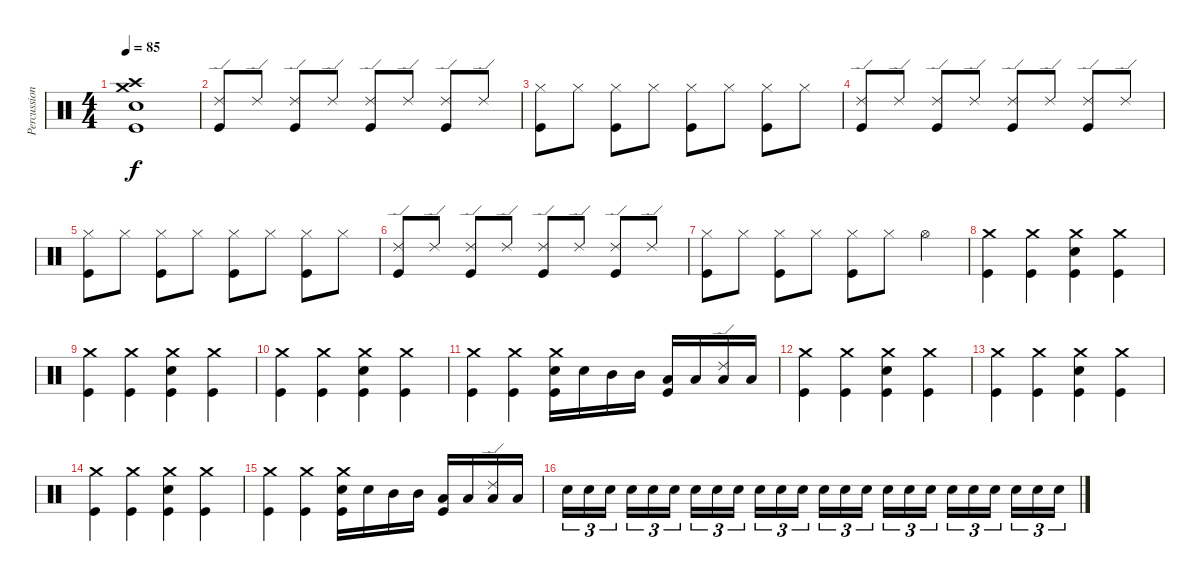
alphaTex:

\track ("Percussion" "Percussion") {instrument percussion}
\staff {score}
\articulation defaults
\ts (4 4)
\tempo 85
\clef neutral
\ks c
("Crash medium (hit)" "Crash high (hit)" "Snare (hit) 2" "Kick (hit)").1{dy f} |
("Ride (edge) 2" "Kick (hit)").8 "Ride (edge) 2".8 ("Ride (edge) 2" "Kick (hit)").8 "Ride (edge) 2".8 ("Ride (edge) 2" "Kick (hit)").8 "Ride (edge) 2".8 ("Ride (edge) 2" "Kick (hit)").8 "Ride (edge) 2".8 |
("Hi-Hat (closed)" "Kick (hit)").8 "Hi-Hat (closed)".8 ("Hi-Hat (closed)" "Kick (hit)").8 "Hi-Hat (closed)".8 ("Hi-Hat (closed)" "Kick (hit)").8 "Hi-Hat (closed)".8 ("Hi-Hat (closed)" "Kick (hit)").8 "Hi-Hat (closed)".8 |
("Ride (edge) 2" "Kick (hit)").8 "Ride (edge) 2".8 ("Ride (edge) 2" "Kick (hit)").8 "Ride (edge) 2".8 ("Ride (edge) 2" "Kick (hit)").8 "Ride (edge) 2".8 ("Ride (edge) 2" "Kick (hit)").8 "Ride (edge) 2".8 |
("Hi-Hat (closed)" "Kick (hit)").8 "Hi-Hat (closed)".8 ("Hi-Hat (closed)" "Kick (hit)").8 "Hi-Hat (closed)".8 ("Hi-Hat (closed)" "Kick (hit)").8 "Hi-Hat (closed)".8 ("Hi-Hat (closed)" "Kick (hit)").8 "Hi-Hat (closed)".8 |
("Ride (edge) 2" "Kick (hit)").8 "Ride (edge) 2".8 ("Ride (edge) 2" "Kick (hit)").8 "Ride (edge) 2".8 ("Ride (edge) 2" "Kick (hit)").8 "Ride (edge) 2".8 ("Ride (edge) 2" "Kick (hit)").8 "Ride (edge) 2".8 |
("Hi-Hat (closed)" "Kick (hit)").8 "Hi-Hat (closed)".8 ("Hi-Hat (closed)" "Kick (hit)").8 "Hi-Hat (closed)".8 ("Hi-Hat (closed)" "Kick (hit)").8 "Hi-Hat (closed)".8 "Hi-Hat (open)".4 |
("Crash medium (hit)" "Kick (hit)").4 ("Crash medium (hit)" "Kick (hit)").4 ("Crash medium (hit)" "Snare (hit) 2" "Kick (hit)").4 ("Crash medium (hit)" "Kick (hit)").4 |
("Crash medium (hit)" "Kick (hit)").4 ("Crash medium (hit)" "Kick (hit)").4 ("Crash medium (hit)" "Snare (hit) 2" "Kick (hit)").4 ("Crash medium (hit)" "Kick (hit)").4 |
("Crash medium (hit)" "Kick (hit)").4 ("Crash medium (hit)" "Kick (hit)").4 ("Crash medium (hit)" "Snare (hit) 2" "Kick (hit)").4 ("Crash medium (hit)" "Kick (hit)").4 |
("Crash medium (hit)" "Kick (hit)").4 ("Crash medium (hit)" "Kick (hit)").4 ("Crash medium (hit)" "Snare (hit) 2" "Kick (hit)").16 "Snare (hit) 2".16 "Mid Tom (hit)".16 "Mid Tom (hit)".16 ("Low Tom (hit)" "Kick (hit)").16 "Low Tom (hit)".16 ("Ride (edge) 2" "Low Floor Tom (hit)").16 "Low Floor Tom (hit)".16 |
("Crash medium (hit)" "Kick (hit)").4 ("Crash medium (hit)" "Kick (hit)").4 ("Crash medium (hit)" "Snare (hit) 2" "Kick (hit)").4 ("Crash medium (hit)" "Kick (hit)").4 |
("Crash medium (hit)" "Kick (hit)").4 ("Crash medium (hit)" "Kick (hit)").4 ("Crash medium (hit)" "Snare (hit) 2" "Kick (hit)").4 ("Crash medium (hit)" "Kick (hit)").4 |
("Crash medium (hit)" "Kick (hit)").4 ("Crash medium (hit)" "Kick (hit)").4 ("Crash medium (hit)" "Snare (hit) 2" "Kick (hit)").4 ("Crash medium (hit)" "Kick (hit)").4 |
("Crash medium (hit)" "Kick (hit)").4 ("Crash medium (hit)" "Kick (hit)").4 ("Crash medium (hit)" "Snare (hit) 2" "Kick (hit)").16 "Snare (hit) 2".16 "Mid Tom (hit)".16 "Mid Tom (hit)".16 ("Low Tom (hit)" "Kick (hit)").16 "Low Tom (hit)".16 ("Ride (edge) 2" "Low Floor Tom (hit)").16 "Low Floor Tom (hit)".16 |
"Snare (hit) 2".16{tu (3 2) volume 1} "Snare (hit) 2".16{tu (3 2) volume 13} "Snare (hit) 2".16{tu (3 2) beam splitsecondary} "Snare (hit) 2".16{tu (3 2)} "Snare (hit) 2".16{tu (3 2)} "Snare (hit) 2".16{tu (3 2)} "Snare (hit) 2".16{tu (3 2)} "Snare (hit) 2".16{tu (3 2)} "Snare (hit) 2".16{tu (3 2) beam splitsecondary} "Snare (hit) 2".16{tu (3 2)} "Snare (hit) 2".16{tu (3 2)} "Snare (hit) 2".16{tu (3 2)} "Snare (hit) 2".16{tu (3 2)} "Snare (hit) 2".16{tu (3 2)} "Snare (hit) 2".16{tu (3 2) beam splitsecondary} "Snare (hit) 2".16{tu (3 2)} "Snare (hit) 2".16{tu (3 2)} "Snare (hit) 2".16{tu (3 2)} "Snare (hit) 2".16{tu (3 2)} "Snare (hit) 2".16{tu (3 2)} "Snare (hit) 2".16{tu (3 2) beam splitsecondary} "Snare (hit) 2".16{tu (3 2)} "Snare (hit) 2".16{tu (3 2)} "Snare (hit) 2".16{tu (3 2)}
